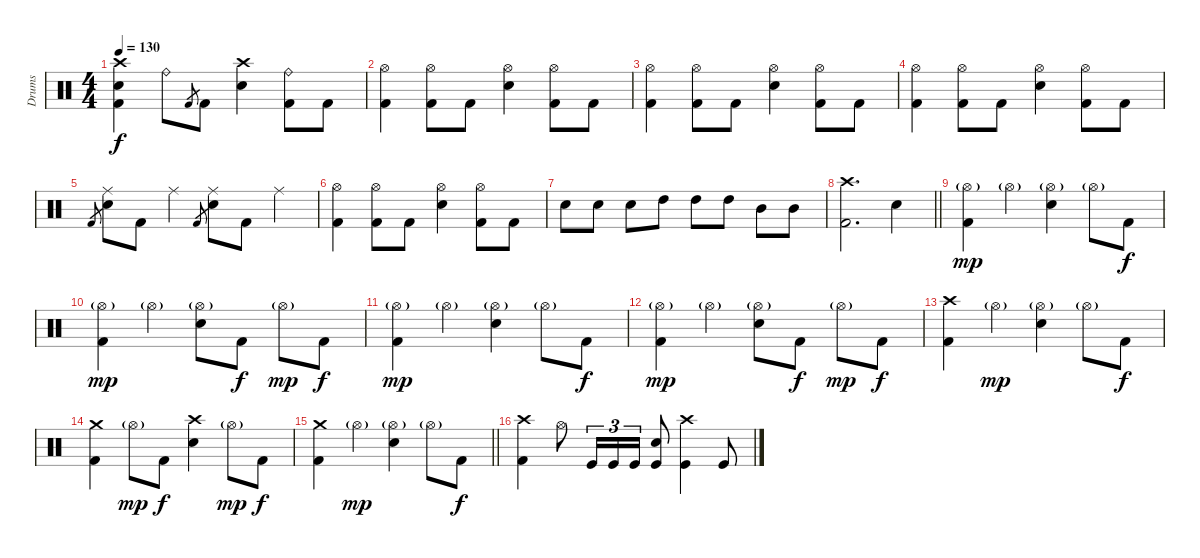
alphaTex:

\track ("Drums" "Drums") {instrument percussion}
\staff {score}
\articulation defaults
\ts (4 4)
\tempo 130
\clef neutral
\ks c
("Crash high (hit)" "Electric Snare (hit)" "Kick (hit) 2").4{dy f} "Ride (bell)".8 "Kick (hit) 2".8{gr} "Kick (hit) 2".8 ("Crash high (hit)" "Electric Snare (hit)").4 ("Ride (bell)" "Kick (hit) 2").8 "Kick (hit) 2".8 |
("Hi-Hat (open)" "Kick (hit) 2").4 ("Hi-Hat (open)" "Kick (hit) 2").8 "Kick (hit) 2".8 ("Hi-Hat (open)" "Electric Snare (hit)").4 ("Hi-Hat (open)" "Kick (hit) 2").8 "Kick (hit) 2".8 |
("Hi-Hat (open)" "Kick (hit) 2").4 ("Hi-Hat (open)" "Kick (hit) 2").8 "Kick (hit) 2".8 ("Hi-Hat (open)" "Electric Snare (hit)").4 ("Hi-Hat (open)" "Kick (hit) 2").8 "Kick (hit) 2".8 |
("Hi-Hat (open)" "Kick (hit) 2").4 ("Hi-Hat (open)" "Kick (hit) 2").8 "Kick (hit) 2".8 ("Hi-Hat (open)" "Electric Snare (hit)").4 ("Hi-Hat (open)" "Kick (hit) 2").8 "Kick (hit) 2".8 |
"Kick (hit) 2".8{gr} ("Ride (middle)" "Electric Snare (hit)").8 "Kick (hit) 2".8 "Ride (middle)".4 "Kick (hit) 2".8{gr} ("Ride (middle)" "Electric Snare (hit)").8 "Kick (hit) 2".8 "Ride (middle)".4 |
("Hi-Hat (open)" "Kick (hit) 2").4 ("Hi-Hat (open)" "Kick (hit) 2").8 "Kick (hit) 2".8 ("Hi-Hat (open)" "Electric Snare (hit)").4 ("Hi-Hat (open)" "Kick (hit) 2").8 "Kick (hit) 2".8 |
"Electric Snare (hit)".8 "Electric Snare (hit)".8 "Electric Snare (hit)".8 "High Tom (hit)".8 "High Tom (hit)".8 "High Tom (hit)".8 "Mid Tom (hit)".8 "Mid Tom (hit)".8 |
\barLineRight lightlight
("Crash high (hit)" "Kick (hit) 2").2{d} "Electric Snare (hit)".4 |
("Hi-Hat (open)"{g} "Kick (hit) 2").4{dy mp} "Hi-Hat (open)"{g}.4 ("Hi-Hat (open)"{g} "Electric Snare (hit)").4 "Hi-Hat (open)"{g}.8 "Kick (hit) 2".8{dy f} |
("Hi-Hat (open)"{g} "Kick (hit) 2").4{dy mp} "Hi-Hat (open)"{g}.4 ("Hi-Hat (open)"{g} "Electric Snare (hit)").8 "Kick (hit) 2".8{dy f} "Hi-Hat (open)"{g}.8{dy mp} "Kick (hit) 2".8{dy f} |
("Hi-Hat (open)"{g} "Kick (hit) 2").4{dy mp} "Hi-Hat (open)"{g}.4 ("Hi-Hat (open)"{g} "Electric Snare (hit)").4 "Hi-Hat (open)"{g}.8 "Kick (hit) 2".8{dy f} |
("Hi-Hat (open)"{g} "Kick (hit) 2").4{dy mp} "Hi-Hat (open)"{g}.4 ("Hi-Hat (open)"{g} "Electric Snare (hit)").8 "Kick (hit) 2".8{dy f} "Hi-Hat (open)"{g}.8{dy mp} "Kick (hit) 2".8{dy f} |
("Crash high (hit)" "Kick (hit) 2").4 "Hi-Hat (open)"{g}.4{dy mp} ("Hi-Hat (open)"{g} "Electric Snare (hit)").4 "Hi-Hat (open)"{g}.8 "Kick (hit) 2".8{dy f} |
("Crash medium (hit)" "Kick (hit) 2").4 "Hi-Hat (open)"{g}.8{dy mp} "Kick (hit) 2".8{dy f} ("Crash high (hit)" "Electric Snare (hit)").4 "Hi-Hat (open)"{g}.8{dy mp} "Kick (hit) 2".8{dy f} |
\barLineRight lightlight
("Crash medium (hit)" "Kick (hit) 2").4 "Hi-Hat (open)"{g}.4{dy mp} ("Hi-Hat (open)"{g} "Electric Snare (hit)").4 "Hi-Hat (open)"{g}.8 "Kick (hit) 2".8{dy f} |
("Crash high (hit)" "Kick (hit) 2").4 "Hi-Hat (open)".8 "Kick (hit)".16{tu (3 2)} "Kick (hit)".16{tu (3 2)} "Kick (hit)".16{tu (3 2)} ("Snare (hit) 2" "Kick (hit)").8 ("Kick (hit)" "Crash high (hit)").4 "Kick (hit)".8
